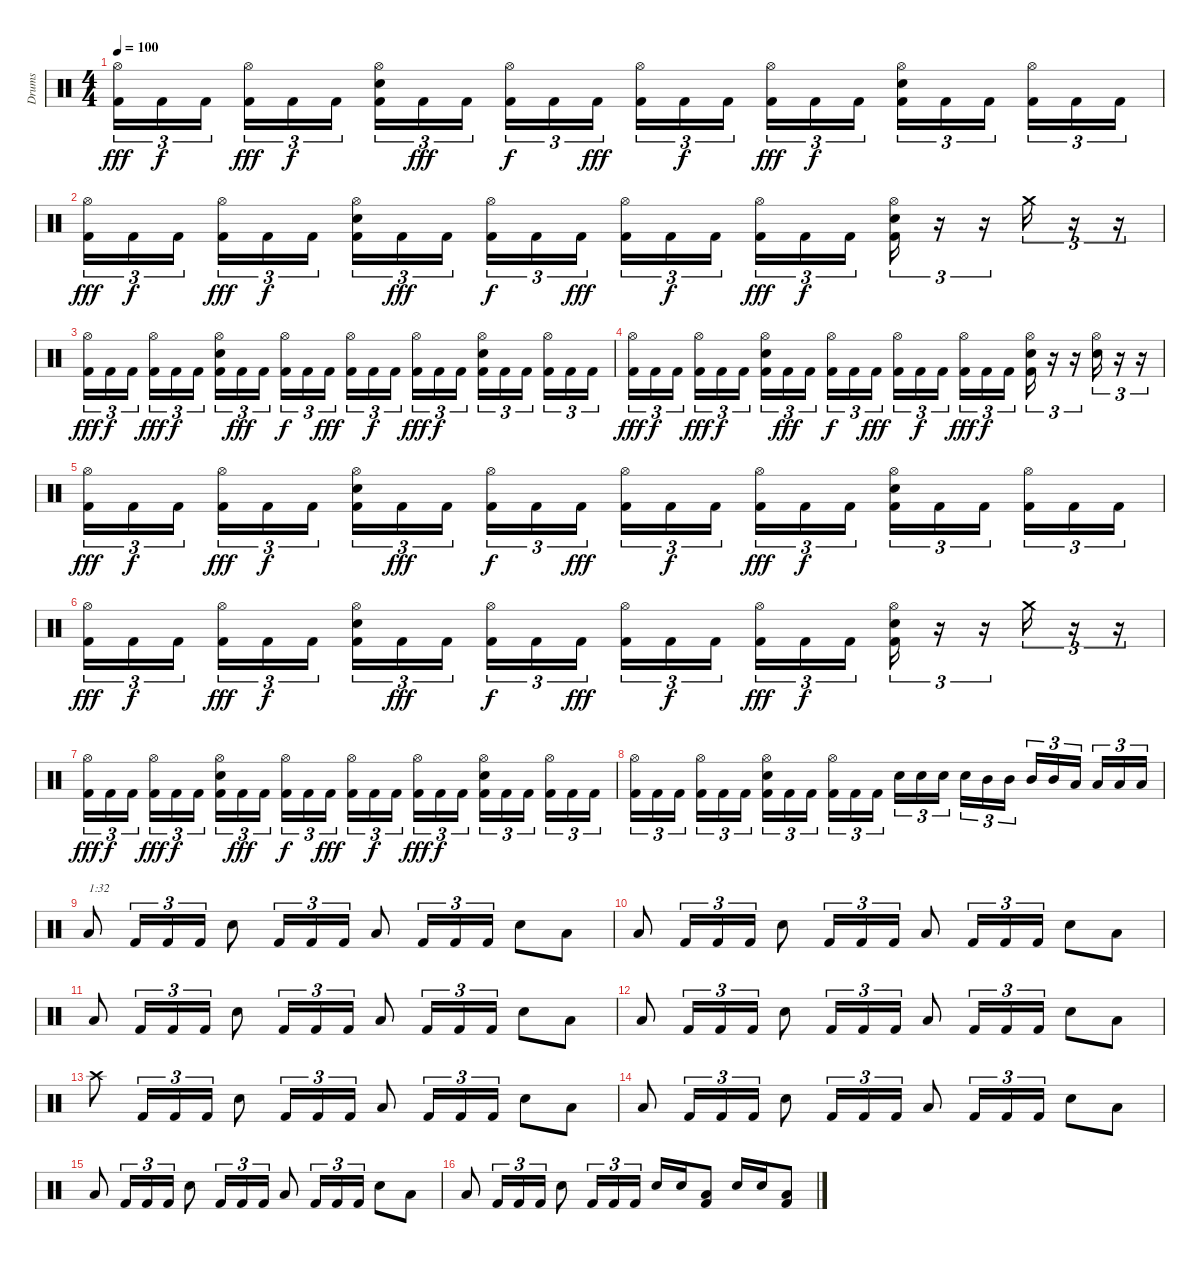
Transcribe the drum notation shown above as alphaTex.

\track ("Drums" "Drums") {instrument percussion}
\staff {score}
\articulation defaults
\ts (4 4)
\tempo 100
\clef neutral
\ks c
("Hi-Hat (open)" "Kick (hit) 2").16{tu (3 2) dy fff} "Kick (hit) 2".16{tu (3 2) dy f} "Kick (hit) 2".16{tu (3 2)} ("Hi-Hat (open)" "Kick (hit) 2").16{tu (3 2) dy fff} "Kick (hit) 2".16{tu (3 2) dy f} "Kick (hit) 2".16{tu (3 2)} ("Hi-Hat (open)" "Electric Snare (hit)" "Kick (hit) 2").16{tu (3 2)} "Kick (hit) 2".16{tu (3 2) dy fff} "Kick (hit) 2".16{tu (3 2)} ("Hi-Hat (open)" "Kick (hit) 2").16{tu (3 2) dy f} "Kick (hit) 2".16{tu (3 2)} "Kick (hit) 2".16{tu (3 2) dy fff} ("Hi-Hat (open)" "Kick (hit) 2").16{tu (3 2)} "Kick (hit) 2".16{tu (3 2) dy f} "Kick (hit) 2".16{tu (3 2)} ("Hi-Hat (open)" "Kick (hit) 2").16{tu (3 2) dy fff} "Kick (hit) 2".16{tu (3 2) dy f} "Kick (hit) 2".16{tu (3 2)} ("Hi-Hat (open)" "Electric Snare (hit)" "Kick (hit) 2").16{tu (3 2)} "Kick (hit) 2".16{tu (3 2)} "Kick (hit) 2".16{tu (3 2)} ("Hi-Hat (open)" "Kick (hit) 2").16{tu (3 2)} "Kick (hit) 2".16{tu (3 2)} "Kick (hit) 2".16{tu (3 2)} |
("Hi-Hat (open)" "Kick (hit) 2").16{tu (3 2) dy fff} "Kick (hit) 2".16{tu (3 2) dy f} "Kick (hit) 2".16{tu (3 2)} ("Hi-Hat (open)" "Kick (hit) 2").16{tu (3 2) dy fff} "Kick (hit) 2".16{tu (3 2) dy f} "Kick (hit) 2".16{tu (3 2)} ("Hi-Hat (open)" "Electric Snare (hit)" "Kick (hit) 2").16{tu (3 2)} "Kick (hit) 2".16{tu (3 2) dy fff} "Kick (hit) 2".16{tu (3 2)} ("Hi-Hat (open)" "Kick (hit) 2").16{tu (3 2) dy f} "Kick (hit) 2".16{tu (3 2)} "Kick (hit) 2".16{tu (3 2) dy fff} ("Hi-Hat (open)" "Kick (hit) 2").16{tu (3 2)} "Kick (hit) 2".16{tu (3 2) dy f} "Kick (hit) 2".16{tu (3 2)} ("Hi-Hat (open)" "Kick (hit) 2").16{tu (3 2) dy fff} "Kick (hit) 2".16{tu (3 2) dy f} "Kick (hit) 2".16{tu (3 2)} ("Hi-Hat (open)" "Electric Snare (hit)" "Kick (hit) 2").16{tu (3 2)} r.16{tu (3 2)} r.16{tu (3 2)} "Crash medium (hit)".16{tu (3 2)} r.16{tu (3 2)} r.16{tu (3 2)} |
("Hi-Hat (open)" "Kick (hit) 2").16{tu (3 2) dy fff} "Kick (hit) 2".16{tu (3 2) dy f} "Kick (hit) 2".16{tu (3 2)} ("Hi-Hat (open)" "Kick (hit) 2").16{tu (3 2) dy fff} "Kick (hit) 2".16{tu (3 2) dy f} "Kick (hit) 2".16{tu (3 2)} ("Hi-Hat (open)" "Electric Snare (hit)" "Kick (hit) 2").16{tu (3 2)} "Kick (hit) 2".16{tu (3 2) dy fff} "Kick (hit) 2".16{tu (3 2)} ("Hi-Hat (open)" "Kick (hit) 2").16{tu (3 2) dy f} "Kick (hit) 2".16{tu (3 2)} "Kick (hit) 2".16{tu (3 2) dy fff} ("Hi-Hat (open)" "Kick (hit) 2").16{tu (3 2)} "Kick (hit) 2".16{tu (3 2) dy f} "Kick (hit) 2".16{tu (3 2)} ("Hi-Hat (open)" "Kick (hit) 2").16{tu (3 2) dy fff} "Kick (hit) 2".16{tu (3 2) dy f} "Kick (hit) 2".16{tu (3 2)} ("Hi-Hat (open)" "Electric Snare (hit)" "Kick (hit) 2").16{tu (3 2)} "Kick (hit) 2".16{tu (3 2)} "Kick (hit) 2".16{tu (3 2)} ("Hi-Hat (open)" "Kick (hit) 2").16{tu (3 2)} "Kick (hit) 2".16{tu (3 2)} "Kick (hit) 2".16{tu (3 2)} |
("Hi-Hat (open)" "Kick (hit) 2").16{tu (3 2) dy fff} "Kick (hit) 2".16{tu (3 2) dy f} "Kick (hit) 2".16{tu (3 2)} ("Hi-Hat (open)" "Kick (hit) 2").16{tu (3 2) dy fff} "Kick (hit) 2".16{tu (3 2) dy f} "Kick (hit) 2".16{tu (3 2)} ("Hi-Hat (open)" "Electric Snare (hit)" "Kick (hit) 2").16{tu (3 2)} "Kick (hit) 2".16{tu (3 2) dy fff} "Kick (hit) 2".16{tu (3 2)} ("Hi-Hat (open)" "Kick (hit) 2").16{tu (3 2) dy f} "Kick (hit) 2".16{tu (3 2)} "Kick (hit) 2".16{tu (3 2) dy fff} ("Hi-Hat (open)" "Kick (hit) 2").16{tu (3 2)} "Kick (hit) 2".16{tu (3 2) dy f} "Kick (hit) 2".16{tu (3 2)} ("Hi-Hat (open)" "Kick (hit) 2").16{tu (3 2) dy fff} "Kick (hit) 2".16{tu (3 2) dy f} "Kick (hit) 2".16{tu (3 2)} ("Hi-Hat (open)" "Electric Snare (hit)" "Kick (hit) 2").16{tu (3 2)} r.16{tu (3 2)} r.16{tu (3 2)} ("Hi-Hat (open)" "Electric Snare (hit)").16{tu (3 2)} r.16{tu (3 2)} r.16{tu (3 2)} |
("Hi-Hat (open)" "Kick (hit) 2").16{tu (3 2) dy fff} "Kick (hit) 2".16{tu (3 2) dy f} "Kick (hit) 2".16{tu (3 2)} ("Hi-Hat (open)" "Kick (hit) 2").16{tu (3 2) dy fff} "Kick (hit) 2".16{tu (3 2) dy f} "Kick (hit) 2".16{tu (3 2)} ("Hi-Hat (open)" "Electric Snare (hit)" "Kick (hit) 2").16{tu (3 2)} "Kick (hit) 2".16{tu (3 2) dy fff} "Kick (hit) 2".16{tu (3 2)} ("Hi-Hat (open)" "Kick (hit) 2").16{tu (3 2) dy f} "Kick (hit) 2".16{tu (3 2)} "Kick (hit) 2".16{tu (3 2) dy fff} ("Hi-Hat (open)" "Kick (hit) 2").16{tu (3 2)} "Kick (hit) 2".16{tu (3 2) dy f} "Kick (hit) 2".16{tu (3 2)} ("Hi-Hat (open)" "Kick (hit) 2").16{tu (3 2) dy fff} "Kick (hit) 2".16{tu (3 2) dy f} "Kick (hit) 2".16{tu (3 2)} ("Hi-Hat (open)" "Electric Snare (hit)" "Kick (hit) 2").16{tu (3 2)} "Kick (hit) 2".16{tu (3 2)} "Kick (hit) 2".16{tu (3 2)} ("Hi-Hat (open)" "Kick (hit) 2").16{tu (3 2)} "Kick (hit) 2".16{tu (3 2)} "Kick (hit) 2".16{tu (3 2)} |
("Hi-Hat (open)" "Kick (hit) 2").16{tu (3 2) dy fff} "Kick (hit) 2".16{tu (3 2) dy f} "Kick (hit) 2".16{tu (3 2)} ("Hi-Hat (open)" "Kick (hit) 2").16{tu (3 2) dy fff} "Kick (hit) 2".16{tu (3 2) dy f} "Kick (hit) 2".16{tu (3 2)} ("Hi-Hat (open)" "Electric Snare (hit)" "Kick (hit) 2").16{tu (3 2)} "Kick (hit) 2".16{tu (3 2) dy fff} "Kick (hit) 2".16{tu (3 2)} ("Hi-Hat (open)" "Kick (hit) 2").16{tu (3 2) dy f} "Kick (hit) 2".16{tu (3 2)} "Kick (hit) 2".16{tu (3 2) dy fff} ("Hi-Hat (open)" "Kick (hit) 2").16{tu (3 2)} "Kick (hit) 2".16{tu (3 2) dy f} "Kick (hit) 2".16{tu (3 2)} ("Hi-Hat (open)" "Kick (hit) 2").16{tu (3 2) dy fff} "Kick (hit) 2".16{tu (3 2) dy f} "Kick (hit) 2".16{tu (3 2)} ("Hi-Hat (open)" "Electric Snare (hit)" "Kick (hit) 2").16{tu (3 2)} r.16{tu (3 2)} r.16{tu (3 2)} "Crash medium (hit)".16{tu (3 2)} r.16{tu (3 2)} r.16{tu (3 2)} |
("Hi-Hat (open)" "Kick (hit) 2").16{tu (3 2) dy fff} "Kick (hit) 2".16{tu (3 2) dy f} "Kick (hit) 2".16{tu (3 2)} ("Hi-Hat (open)" "Kick (hit) 2").16{tu (3 2) dy fff} "Kick (hit) 2".16{tu (3 2) dy f} "Kick (hit) 2".16{tu (3 2)} ("Hi-Hat (open)" "Electric Snare (hit)" "Kick (hit) 2").16{tu (3 2)} "Kick (hit) 2".16{tu (3 2) dy fff} "Kick (hit) 2".16{tu (3 2)} ("Hi-Hat (open)" "Kick (hit) 2").16{tu (3 2) dy f} "Kick (hit) 2".16{tu (3 2)} "Kick (hit) 2".16{tu (3 2) dy fff} ("Hi-Hat (open)" "Kick (hit) 2").16{tu (3 2)} "Kick (hit) 2".16{tu (3 2) dy f} "Kick (hit) 2".16{tu (3 2)} ("Hi-Hat (open)" "Kick (hit) 2").16{tu (3 2) dy fff} "Kick (hit) 2".16{tu (3 2) dy f} "Kick (hit) 2".16{tu (3 2)} ("Hi-Hat (open)" "Electric Snare (hit)" "Kick (hit) 2").16{tu (3 2)} "Kick (hit) 2".16{tu (3 2)} "Kick (hit) 2".16{tu (3 2)} ("Hi-Hat (open)" "Kick (hit) 2").16{tu (3 2)} "Kick (hit) 2".16{tu (3 2)} "Kick (hit) 2".16{tu (3 2)} |
("Hi-Hat (open)" "Kick (hit) 2").16{tu (3 2)} "Kick (hit) 2".16{tu (3 2)} "Kick (hit) 2".16{tu (3 2)} ("Hi-Hat (open)" "Kick (hit) 2").16{tu (3 2)} "Kick (hit) 2".16{tu (3 2)} "Kick (hit) 2".16{tu (3 2)} ("Hi-Hat (open)" "Electric Snare (hit)" "Kick (hit) 2").16{tu (3 2)} "Kick (hit) 2".16{tu (3 2)} "Kick (hit) 2".16{tu (3 2)} ("Hi-Hat (open)" "Kick (hit) 2").16{tu (3 2)} "Kick (hit) 2".16{tu (3 2)} "Kick (hit) 2".16{tu (3 2)} "Electric Snare (hit)".16{tu (3 2)} "Electric Snare (hit)".16{tu (3 2)} "Electric Snare (hit)".16{tu (3 2)} "Electric Snare (hit)".16{tu (3 2)} "Mid Tom (hit)".16{tu (3 2)} "Mid Tom (hit)".16{tu (3 2)} "Mid Tom (hit)".16{tu (3 2)} "Mid Tom (hit)".16{tu (3 2)} "Low Tom (hit)".16{tu (3 2)} "Low Tom (hit)".16{tu (3 2)} "Low Tom (hit)".16{tu (3 2)} "Low Tom (hit)".16{tu (3 2)} |
"Low Tom (hit)".8{txt "1:32"} "Kick (hit) 2".16{tu (3 2)} "Kick (hit) 2".16{tu (3 2)} "Kick (hit) 2".16{tu (3 2)} "Electric Snare (hit)".8 "Kick (hit) 2".16{tu (3 2)} "Kick (hit) 2".16{tu (3 2)} "Kick (hit) 2".16{tu (3 2)} "Low Tom (hit)".8 "Kick (hit) 2".16{tu (3 2)} "Kick (hit) 2".16{tu (3 2)} "Kick (hit) 2".16{tu (3 2)} "Electric Snare (hit)".8 "Low Tom (hit)".8 |
"Low Tom (hit)".8 "Kick (hit) 2".16{tu (3 2)} "Kick (hit) 2".16{tu (3 2)} "Kick (hit) 2".16{tu (3 2)} "Electric Snare (hit)".8 "Kick (hit) 2".16{tu (3 2)} "Kick (hit) 2".16{tu (3 2)} "Kick (hit) 2".16{tu (3 2)} "Low Tom (hit)".8 "Kick (hit) 2".16{tu (3 2)} "Kick (hit) 2".16{tu (3 2)} "Kick (hit) 2".16{tu (3 2)} "Electric Snare (hit)".8 "Low Tom (hit)".8 |
"Low Tom (hit)".8 "Kick (hit) 2".16{tu (3 2)} "Kick (hit) 2".16{tu (3 2)} "Kick (hit) 2".16{tu (3 2)} "Electric Snare (hit)".8 "Kick (hit) 2".16{tu (3 2)} "Kick (hit) 2".16{tu (3 2)} "Kick (hit) 2".16{tu (3 2)} "Low Tom (hit)".8 "Kick (hit) 2".16{tu (3 2)} "Kick (hit) 2".16{tu (3 2)} "Kick (hit) 2".16{tu (3 2)} "Electric Snare (hit)".8 "Low Tom (hit)".8 |
"Low Tom (hit)".8 "Kick (hit) 2".16{tu (3 2)} "Kick (hit) 2".16{tu (3 2)} "Kick (hit) 2".16{tu (3 2)} "Electric Snare (hit)".8 "Kick (hit) 2".16{tu (3 2)} "Kick (hit) 2".16{tu (3 2)} "Kick (hit) 2".16{tu (3 2)} "Low Tom (hit)".8 "Kick (hit) 2".16{tu (3 2)} "Kick (hit) 2".16{tu (3 2)} "Kick (hit) 2".16{tu (3 2)} "Electric Snare (hit)".8 "Low Tom (hit)".8 |
"Crash high (hit)".8 "Kick (hit) 2".16{tu (3 2)} "Kick (hit) 2".16{tu (3 2)} "Kick (hit) 2".16{tu (3 2)} "Electric Snare (hit)".8 "Kick (hit) 2".16{tu (3 2)} "Kick (hit) 2".16{tu (3 2)} "Kick (hit) 2".16{tu (3 2)} "Low Tom (hit)".8 "Kick (hit) 2".16{tu (3 2)} "Kick (hit) 2".16{tu (3 2)} "Kick (hit) 2".16{tu (3 2)} "Electric Snare (hit)".8 "Low Tom (hit)".8 |
"Low Tom (hit)".8 "Kick (hit) 2".16{tu (3 2)} "Kick (hit) 2".16{tu (3 2)} "Kick (hit) 2".16{tu (3 2)} "Electric Snare (hit)".8 "Kick (hit) 2".16{tu (3 2)} "Kick (hit) 2".16{tu (3 2)} "Kick (hit) 2".16{tu (3 2)} "Low Tom (hit)".8 "Kick (hit) 2".16{tu (3 2)} "Kick (hit) 2".16{tu (3 2)} "Kick (hit) 2".16{tu (3 2)} "Electric Snare (hit)".8 "Low Tom (hit)".8 |
"Low Tom (hit)".8 "Kick (hit) 2".16{tu (3 2)} "Kick (hit) 2".16{tu (3 2)} "Kick (hit) 2".16{tu (3 2)} "Electric Snare (hit)".8 "Kick (hit) 2".16{tu (3 2)} "Kick (hit) 2".16{tu (3 2)} "Kick (hit) 2".16{tu (3 2)} "Low Tom (hit)".8 "Kick (hit) 2".16{tu (3 2)} "Kick (hit) 2".16{tu (3 2)} "Kick (hit) 2".16{tu (3 2)} "Electric Snare (hit)".8 "Low Tom (hit)".8 |
"Low Tom (hit)".8 "Kick (hit) 2".16{tu (3 2)} "Kick (hit) 2".16{tu (3 2)} "Kick (hit) 2".16{tu (3 2)} "Electric Snare (hit)".8 "Kick (hit) 2".16{tu (3 2)} "Kick (hit) 2".16{tu (3 2)} "Kick (hit) 2".16{tu (3 2)} "Electric Snare (hit)".16 "Electric Snare (hit)".16 ("Low Tom (hit)" "Kick (hit) 2").8 "Electric Snare (hit)".16 "Electric Snare (hit)".16 ("Low Tom (hit)" "Kick (hit) 2").8
